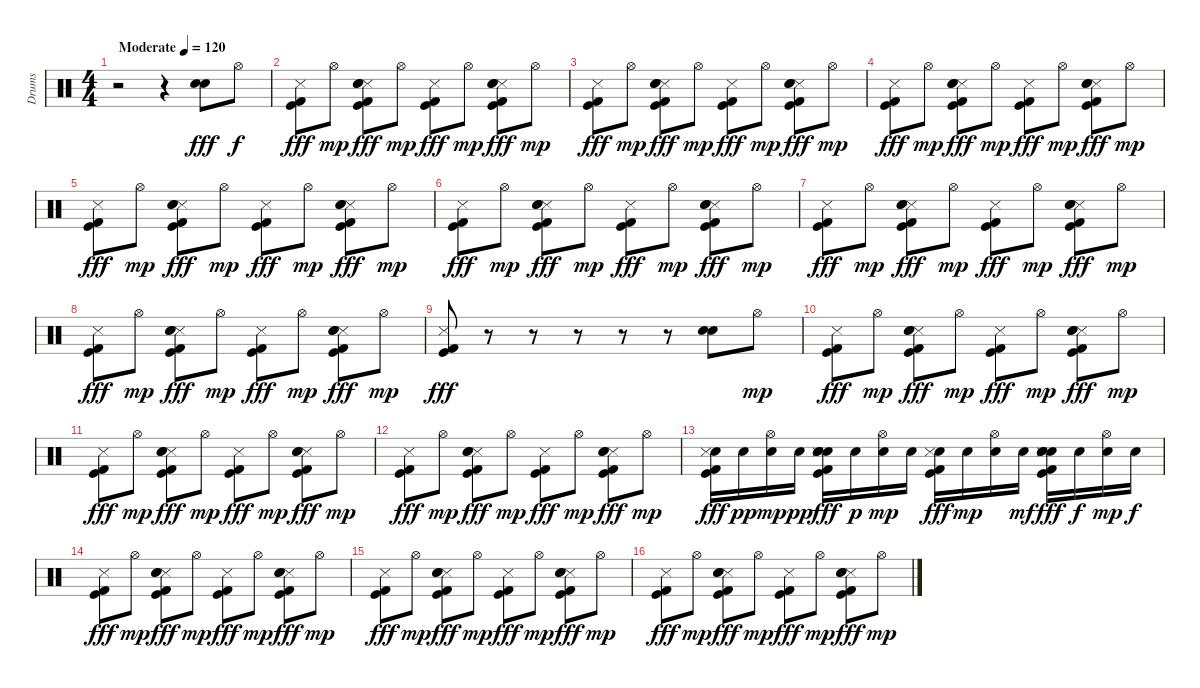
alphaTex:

\track ("Drums" "Drums") {instrument percussion}
\staff {score}
\articulation defaults
\ts (4 4)
\tempo (120 "Moderate")
\clef neutral
\ks c
r.2{dy fff} r.4 ("Snare (hit) 2" "Electric Snare (hit)").8 "Hi-Hat (open)".8{dy f} |
("Metronome (hit)" "Kick (hit)" "Kick (hit) 2").8{dy fff} "Hi-Hat (open)".8{dy mp} ("Metronome (hit)" "Kick (hit)" "Kick (hit) 2" "Snare (hit) 2" "Electric Snare (hit)").8{dy fff} "Hi-Hat (open)".8{dy mp} ("Metronome (hit)" "Kick (hit)" "Kick (hit) 2").8{dy fff} "Hi-Hat (open)".8{dy mp} ("Metronome (hit)" "Kick (hit)" "Kick (hit) 2" "Snare (hit) 2" "Electric Snare (hit)").8{dy fff} "Hi-Hat (open)".8{dy mp} |
("Metronome (hit)" "Kick (hit)" "Kick (hit) 2").8{dy fff} "Hi-Hat (open)".8{dy mp} ("Metronome (hit)" "Kick (hit)" "Kick (hit) 2" "Snare (hit) 2" "Electric Snare (hit)").8{dy fff} "Hi-Hat (open)".8{dy mp} ("Metronome (hit)" "Kick (hit)" "Kick (hit) 2").8{dy fff} "Hi-Hat (open)".8{dy mp} ("Metronome (hit)" "Kick (hit)" "Kick (hit) 2" "Snare (hit) 2" "Electric Snare (hit)").8{dy fff} "Hi-Hat (open)".8{dy mp} |
("Metronome (hit)" "Kick (hit)" "Kick (hit) 2").8{dy fff} "Hi-Hat (open)".8{dy mp} ("Metronome (hit)" "Kick (hit)" "Kick (hit) 2" "Snare (hit) 2" "Electric Snare (hit)").8{dy fff} "Hi-Hat (open)".8{dy mp} ("Metronome (hit)" "Kick (hit)" "Kick (hit) 2").8{dy fff} "Hi-Hat (open)".8{dy mp} ("Metronome (hit)" "Kick (hit)" "Kick (hit) 2" "Snare (hit) 2" "Electric Snare (hit)").8{dy fff} "Hi-Hat (open)".8{dy mp} |
("Metronome (hit)" "Kick (hit)" "Kick (hit) 2").8{dy fff} "Hi-Hat (open)".8{dy mp} ("Metronome (hit)" "Kick (hit)" "Kick (hit) 2" "Snare (hit) 2" "Electric Snare (hit)").8{dy fff} "Hi-Hat (open)".8{dy mp} ("Metronome (hit)" "Kick (hit)" "Kick (hit) 2").8{dy fff} "Hi-Hat (open)".8{dy mp} ("Metronome (hit)" "Kick (hit)" "Kick (hit) 2" "Snare (hit) 2" "Electric Snare (hit)").8{dy fff} "Hi-Hat (open)".8{dy mp} |
("Metronome (hit)" "Kick (hit)" "Kick (hit) 2").8{dy fff} "Hi-Hat (open)".8{dy mp} ("Metronome (hit)" "Kick (hit)" "Kick (hit) 2" "Snare (hit) 2" "Electric Snare (hit)").8{dy fff} "Hi-Hat (open)".8{dy mp} ("Metronome (hit)" "Kick (hit)" "Kick (hit) 2").8{dy fff} "Hi-Hat (open)".8{dy mp} ("Metronome (hit)" "Kick (hit)" "Kick (hit) 2" "Snare (hit) 2" "Electric Snare (hit)").8{dy fff} "Hi-Hat (open)".8{dy mp} |
("Metronome (hit)" "Kick (hit)" "Kick (hit) 2").8{dy fff} "Hi-Hat (open)".8{dy mp} ("Metronome (hit)" "Kick (hit)" "Kick (hit) 2" "Snare (hit) 2" "Electric Snare (hit)").8{dy fff} "Hi-Hat (open)".8{dy mp} ("Metronome (hit)" "Kick (hit)" "Kick (hit) 2").8{dy fff} "Hi-Hat (open)".8{dy mp} ("Metronome (hit)" "Kick (hit)" "Kick (hit) 2" "Snare (hit) 2" "Electric Snare (hit)").8{dy fff} "Hi-Hat (open)".8{dy mp} |
("Metronome (hit)" "Kick (hit)" "Kick (hit) 2").8{dy fff} "Hi-Hat (open)".8{dy mp} ("Metronome (hit)" "Kick (hit)" "Kick (hit) 2" "Snare (hit) 2" "Electric Snare (hit)").8{dy fff} "Hi-Hat (open)".8{dy mp} ("Metronome (hit)" "Kick (hit)" "Kick (hit) 2").8{dy fff} "Hi-Hat (open)".8{dy mp} ("Metronome (hit)" "Kick (hit)" "Kick (hit) 2" "Snare (hit) 2" "Electric Snare (hit)").8{dy fff} "Hi-Hat (open)".8{dy mp} |
("Metronome (hit)" "Kick (hit)" "Kick (hit) 2").8{dy fff} r.8 r.8 r.8 r.8 r.8 ("Snare (hit) 2" "Electric Snare (hit)").8 "Hi-Hat (open)".8{dy mp} |
("Metronome (hit)" "Kick (hit)" "Kick (hit) 2").8{dy fff} "Hi-Hat (open)".8{dy mp} ("Metronome (hit)" "Kick (hit)" "Kick (hit) 2" "Snare (hit) 2" "Electric Snare (hit)").8{dy fff} "Hi-Hat (open)".8{dy mp} ("Metronome (hit)" "Kick (hit)" "Kick (hit) 2").8{dy fff} "Hi-Hat (open)".8{dy mp} ("Metronome (hit)" "Kick (hit)" "Kick (hit) 2" "Snare (hit) 2" "Electric Snare (hit)").8{dy fff} "Hi-Hat (open)".8{dy mp} |
("Metronome (hit)" "Kick (hit)" "Kick (hit) 2").8{dy fff} "Hi-Hat (open)".8{dy mp} ("Metronome (hit)" "Kick (hit)" "Kick (hit) 2" "Snare (hit) 2" "Electric Snare (hit)").8{dy fff} "Hi-Hat (open)".8{dy mp} ("Metronome (hit)" "Kick (hit)" "Kick (hit) 2").8{dy fff} "Hi-Hat (open)".8{dy mp} ("Metronome (hit)" "Kick (hit)" "Kick (hit) 2" "Snare (hit) 2" "Electric Snare (hit)").8{dy fff} "Hi-Hat (open)".8{dy mp} |
("Metronome (hit)" "Kick (hit)" "Kick (hit) 2").8{dy fff} "Hi-Hat (open)".8{dy mp} ("Metronome (hit)" "Kick (hit)" "Kick (hit) 2" "Snare (hit) 2" "Electric Snare (hit)").8{dy fff} "Hi-Hat (open)".8{dy mp} ("Metronome (hit)" "Kick (hit)" "Kick (hit) 2").8{dy fff} "Hi-Hat (open)".8{dy mp} ("Metronome (hit)" "Kick (hit)" "Kick (hit) 2" "Snare (hit) 2" "Electric Snare (hit)").8{dy fff} "Hi-Hat (open)".8{dy mp} |
("Snare (hit)" "Metronome (hit)" "Kick (hit)" "Kick (hit) 2").16{dy fff} "Snare (hit)".16{dy pp} ("Snare (hit)" "Hi-Hat (open)").16{dy mp} "Snare (hit)".16{dy pp} ("Snare (hit)" "Metronome (hit)" "Kick (hit)" "Kick (hit) 2" "Snare (hit) 2" "Electric Snare (hit)").16{dy fff} "Snare (hit)".16{dy p} ("Snare (hit)" "Hi-Hat (open)").16{dy mp} "Snare (hit)".16 ("Snare (hit)" "Metronome (hit)" "Kick (hit)" "Kick (hit) 2").16{dy fff} "Snare (hit)".16{dy mp} ("Snare (hit)" "Hi-Hat (open)").16 "Snare (hit)".16{dy mf} ("Snare (hit)" "Metronome (hit)" "Kick (hit)" "Kick (hit) 2" "Snare (hit) 2" "Electric Snare (hit)").16{dy fff} "Snare (hit)".16{dy f} ("Snare (hit)" "Hi-Hat (open)").16{dy mp} "Snare (hit)".16{dy f} |
("Metronome (hit)" "Kick (hit)" "Kick (hit) 2").8{dy fff} "Hi-Hat (open)".8{dy mp} ("Metronome (hit)" "Kick (hit)" "Kick (hit) 2" "Snare (hit) 2" "Electric Snare (hit)").8{dy fff} "Hi-Hat (open)".8{dy mp} ("Metronome (hit)" "Kick (hit)" "Kick (hit) 2").8{dy fff} "Hi-Hat (open)".8{dy mp} ("Metronome (hit)" "Kick (hit)" "Kick (hit) 2" "Snare (hit) 2" "Electric Snare (hit)").8{dy fff} "Hi-Hat (open)".8{dy mp} |
("Metronome (hit)" "Kick (hit)" "Kick (hit) 2").8{dy fff} "Hi-Hat (open)".8{dy mp} ("Metronome (hit)" "Kick (hit)" "Kick (hit) 2" "Snare (hit) 2" "Electric Snare (hit)").8{dy fff} "Hi-Hat (open)".8{dy mp} ("Metronome (hit)" "Kick (hit)" "Kick (hit) 2").8{dy fff} "Hi-Hat (open)".8{dy mp} ("Metronome (hit)" "Kick (hit)" "Kick (hit) 2" "Snare (hit) 2" "Electric Snare (hit)").8{dy fff} "Hi-Hat (open)".8{dy mp} |
("Metronome (hit)" "Kick (hit)" "Kick (hit) 2").8{dy fff} "Hi-Hat (open)".8{dy mp} ("Metronome (hit)" "Kick (hit)" "Kick (hit) 2" "Snare (hit) 2" "Electric Snare (hit)").8{dy fff} "Hi-Hat (open)".8{dy mp} ("Metronome (hit)" "Kick (hit)" "Kick (hit) 2").8{dy fff} "Hi-Hat (open)".8{dy mp} ("Metronome (hit)" "Kick (hit)" "Kick (hit) 2" "Snare (hit) 2" "Electric Snare (hit)").8{dy fff} "Hi-Hat (open)".8{dy mp}
